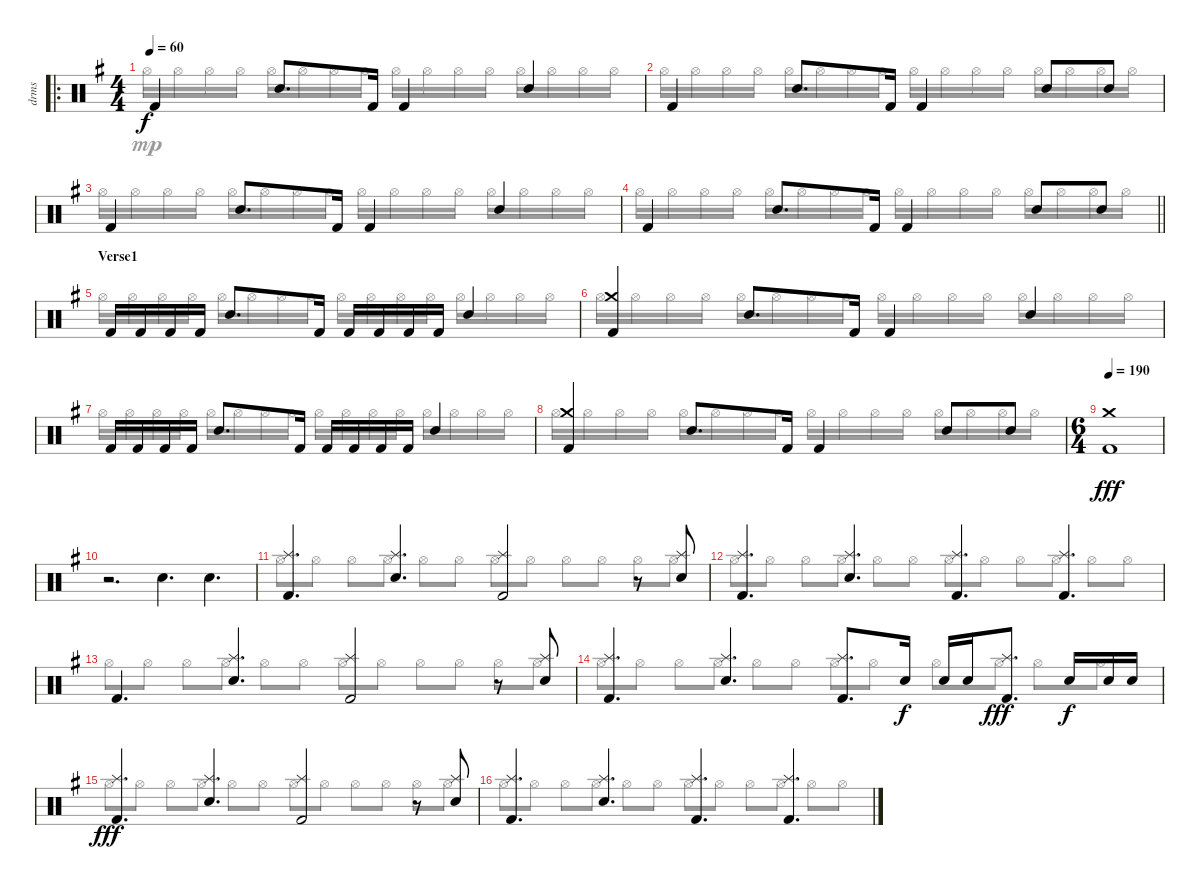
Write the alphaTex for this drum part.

\track ("drms" "drms") {instrument percussion}
\staff {score}
\articulation defaults
\voice
\ro
\ts (4 4)
\tempo 60
\clef neutral
\ks g "Kick (hit) 2".4{dy f} "Snare (hit) 2".8{d} "Kick (hit) 2".16 "Kick (hit) 2".4 "Snare (hit) 2".4
|
"Kick (hit) 2".4 "Snare (hit) 2".8{d} "Kick (hit) 2".16 "Kick (hit) 2".4 "Snare (hit) 2".8 "Snare (hit) 2".8 |
"Kick (hit) 2".4 "Snare (hit) 2".8{d} "Kick (hit) 2".16 "Kick (hit) 2".4 "Snare (hit) 2".4 |
\barLineRight lightlight "Kick (hit) 2".4 "Snare (hit) 2".8{d} "Kick (hit) 2".16 "Kick (hit) 2".4 "Snare (hit) 2".8 "Snare (hit) 2".8
|
\section ("" "Verse1")
"Kick (hit) 2".16 "Kick (hit) 2".16 "Kick (hit) 2".16 "Kick (hit) 2".16 "Snare (hit) 2".8{d} "Kick (hit) 2".16 "Kick (hit) 2".16 "Kick (hit) 2".16 "Kick (hit) 2".16 "Kick (hit) 2".16 "Snare (hit) 2".4 |
("Crash medium (hit)" "Kick (hit) 2").4 "Snare (hit) 2".8{d} "Kick (hit) 2".16 "Kick (hit) 2".4 "Snare (hit) 2".4 |
"Kick (hit) 2".16 "Kick (hit) 2".16 "Kick (hit) 2".16 "Kick (hit) 2".16 "Snare (hit) 2".8{d} "Kick (hit) 2".16 "Kick (hit) 2".16 "Kick (hit) 2".16 "Kick (hit) 2".16 "Kick (hit) 2".16 "Snare (hit) 2".4 |
("Crash medium (hit)" "Kick (hit) 2").4 "Snare (hit) 2".8{d} "Kick (hit) 2".16 "Kick (hit) 2".4 "Snare (hit) 2".8 "Snare (hit) 2".8 |
\ts (6 4)
\tempo 190
("Crash medium (hit)" "Kick (hit) 2").1{dy fff} |
r.2{d} "Snare (hit) 2".4{d} "Snare (hit) 2".4{d} |
("Splash (hit)" "Kick (hit) 2").4{d} ("Splash (hit)" "Snare (hit) 2").4{d} ("Splash (hit)" "Kick (hit) 2").2 r.8 ("Splash (hit)" "Snare (hit) 2").8 |
("Splash (hit)" "Kick (hit) 2").4{d} ("Splash (hit)" "Snare (hit) 2").4{d} ("Splash (hit)" "Kick (hit) 2").4{d} ("Splash (hit)" "Kick (hit) 2").4{d} |
"Kick (hit) 2".4{d} ("Splash (hit)" "Snare (hit) 2").4{d} ("Splash (hit)" "Kick (hit) 2").2 r.8 ("Splash (hit)" "Snare (hit) 2").8 |
("Splash (hit)" "Kick (hit) 2").4{d} ("Splash (hit)" "Snare (hit) 2").4{d} ("Splash (hit)" "Kick (hit) 2").8{d} "Snare (hit) 2".16{dy f} "Snare (hit) 2".16 "Snare (hit) 2".16 ("Splash (hit)" "Kick (hit) 2").8{d dy fff} "Snare (hit) 2".16{dy f} "Snare (hit) 2".16 "Snare (hit) 2".16 |
("Splash (hit)" "Kick (hit) 2").4{d dy fff} ("Splash (hit)" "Snare (hit) 2").4{d} ("Splash (hit)" "Kick (hit) 2").2 r.8 ("Splash (hit)" "Snare (hit) 2").8 |
("Splash (hit)" "Kick (hit) 2").4{d} ("Splash (hit)" "Snare (hit) 2").4{d} ("Splash (hit)" "Kick (hit) 2").4{d} ("Splash (hit)" "Kick (hit) 2").4{d}
\voice
\clef neutral
\ottava regular
\simile none
\ks g "Hi-Hat (open)".16{dy mp} "Hi-Hat (open)".16 "Hi-Hat (open)".16 "Hi-Hat (open)".16 "Hi-Hat (open)".16 "Hi-Hat (open)".16 "Hi-Hat (open)".16 "Hi-Hat (open)".16 "Hi-Hat (open)".16 "Hi-Hat (open)".16 "Hi-Hat (open)".16 "Hi-Hat (open)".16 "Hi-Hat (open)".16 "Hi-Hat (open)".16 "Hi-Hat (open)".16 "Hi-Hat (open)".16
|
"Hi-Hat (open)".16 "Hi-Hat (open)".16 "Hi-Hat (open)".16 "Hi-Hat (open)".16 "Hi-Hat (open)".16 "Hi-Hat (open)".16 "Hi-Hat (open)".16 "Hi-Hat (open)".16 "Hi-Hat (open)".16 "Hi-Hat (open)".16 "Hi-Hat (open)".16 "Hi-Hat (open)".16 "Hi-Hat (open)".16 "Hi-Hat (open)".16 "Hi-Hat (open)".16 "Hi-Hat (open)".16 |
"Hi-Hat (open)".16 "Hi-Hat (open)".16 "Hi-Hat (open)".16 "Hi-Hat (open)".16 "Hi-Hat (open)".16 "Hi-Hat (open)".16 "Hi-Hat (open)".16 "Hi-Hat (open)".16 "Hi-Hat (open)".16 "Hi-Hat (open)".16 "Hi-Hat (open)".16 "Hi-Hat (open)".16 "Hi-Hat (open)".16 "Hi-Hat (open)".16 "Hi-Hat (open)".16 "Hi-Hat (open)".16 |
\barLineRight lightlight "Hi-Hat (open)".16 "Hi-Hat (open)".16 "Hi-Hat (open)".16 "Hi-Hat (open)".16 "Hi-Hat (open)".16 "Hi-Hat (open)".16 "Hi-Hat (open)".16 "Hi-Hat (open)".16 "Hi-Hat (open)".16 "Hi-Hat (open)".16 "Hi-Hat (open)".16 "Hi-Hat (open)".16 "Hi-Hat (open)".16 "Hi-Hat (open)".16 "Hi-Hat (open)".16 "Hi-Hat (open)".16
|
"Hi-Hat (open)".16 "Hi-Hat (open)".16 "Hi-Hat (open)".16 "Hi-Hat (open)".16 "Hi-Hat (open)".16 "Hi-Hat (open)".16 "Hi-Hat (open)".16 "Hi-Hat (open)".16 "Hi-Hat (open)".16 "Hi-Hat (open)".16 "Hi-Hat (open)".16 "Hi-Hat (open)".16 "Hi-Hat (open)".16 "Hi-Hat (open)".16 "Hi-Hat (open)".16 "Hi-Hat (open)".16 |
"Hi-Hat (open)".16 "Hi-Hat (open)".16 "Hi-Hat (open)".16 "Hi-Hat (open)".16 "Hi-Hat (open)".16 "Hi-Hat (open)".16 "Hi-Hat (open)".16 "Hi-Hat (open)".16 "Hi-Hat (open)".16 "Hi-Hat (open)".16 "Hi-Hat (open)".16 "Hi-Hat (open)".16 "Hi-Hat (open)".16 "Hi-Hat (open)".16 "Hi-Hat (open)".16 "Hi-Hat (open)".16 |
"Hi-Hat (open)".16 "Hi-Hat (open)".16 "Hi-Hat (open)".16 "Hi-Hat (open)".16 "Hi-Hat (open)".16 "Hi-Hat (open)".16 "Hi-Hat (open)".16 "Hi-Hat (open)".16 "Hi-Hat (open)".16 "Hi-Hat (open)".16 "Hi-Hat (open)".16 "Hi-Hat (open)".16 "Hi-Hat (open)".16 "Hi-Hat (open)".16 "Hi-Hat (open)".16 "Hi-Hat (open)".16 |
"Hi-Hat (open)".16 "Hi-Hat (open)".16 "Hi-Hat (open)".16 "Hi-Hat (open)".16 "Hi-Hat (open)".16 "Hi-Hat (open)".16 "Hi-Hat (open)".16 "Hi-Hat (open)".16 "Hi-Hat (open)".16 "Hi-Hat (open)".16 "Hi-Hat (open)".16 "Hi-Hat (open)".16 "Hi-Hat (open)".16 "Hi-Hat (open)".16 "Hi-Hat (open)".16 "Hi-Hat (open)".16 |
|
|
"Hi-Hat (open)".8 "Hi-Hat (open)".8 "Hi-Hat (open)".8 "Hi-Hat (open)".8 "Hi-Hat (open)".8 "Hi-Hat (open)".8 "Hi-Hat (open)".8 "Hi-Hat (open)".8 "Hi-Hat (open)".8 "Hi-Hat (open)".8 "Hi-Hat (open)".8 "Hi-Hat (open)".8 |
"Hi-Hat (open)".8 "Hi-Hat (open)".8 "Hi-Hat (open)".8 "Hi-Hat (open)".8 "Hi-Hat (open)".8 "Hi-Hat (open)".8 "Hi-Hat (open)".8 "Hi-Hat (open)".8 "Hi-Hat (open)".8 "Hi-Hat (open)".8 "Hi-Hat (open)".8 "Hi-Hat (open)".8 |
"Hi-Hat (open)".8 "Hi-Hat (open)".8 "Hi-Hat (open)".8 "Hi-Hat (open)".8 "Hi-Hat (open)".8 "Hi-Hat (open)".8 "Hi-Hat (open)".8 "Hi-Hat (open)".8 "Hi-Hat (open)".8 "Hi-Hat (open)".8 "Hi-Hat (open)".8 "Hi-Hat (open)".8 |
"Hi-Hat (open)".8 "Hi-Hat (open)".8 "Hi-Hat (open)".8 "Hi-Hat (open)".8 "Hi-Hat (open)".8 "Hi-Hat (open)".8 "Hi-Hat (open)".8 "Hi-Hat (open)".8 "Hi-Hat (open)".8 "Hi-Hat (open)".8 "Hi-Hat (open)".8 "Hi-Hat (open)".8 |
"Hi-Hat (open)".8 "Hi-Hat (open)".8 "Hi-Hat (open)".8 "Hi-Hat (open)".8 "Hi-Hat (open)".8 "Hi-Hat (open)".8 "Hi-Hat (open)".8 "Hi-Hat (open)".8 "Hi-Hat (open)".8 "Hi-Hat (open)".8 "Hi-Hat (open)".8 "Hi-Hat (open)".8 |
"Hi-Hat (open)".8 "Hi-Hat (open)".8 "Hi-Hat (open)".8 "Hi-Hat (open)".8 "Hi-Hat (open)".8 "Hi-Hat (open)".8 "Hi-Hat (open)".8 "Hi-Hat (open)".8 "Hi-Hat (open)".8 "Hi-Hat (open)".8 "Hi-Hat (open)".8 "Hi-Hat (open)".8
